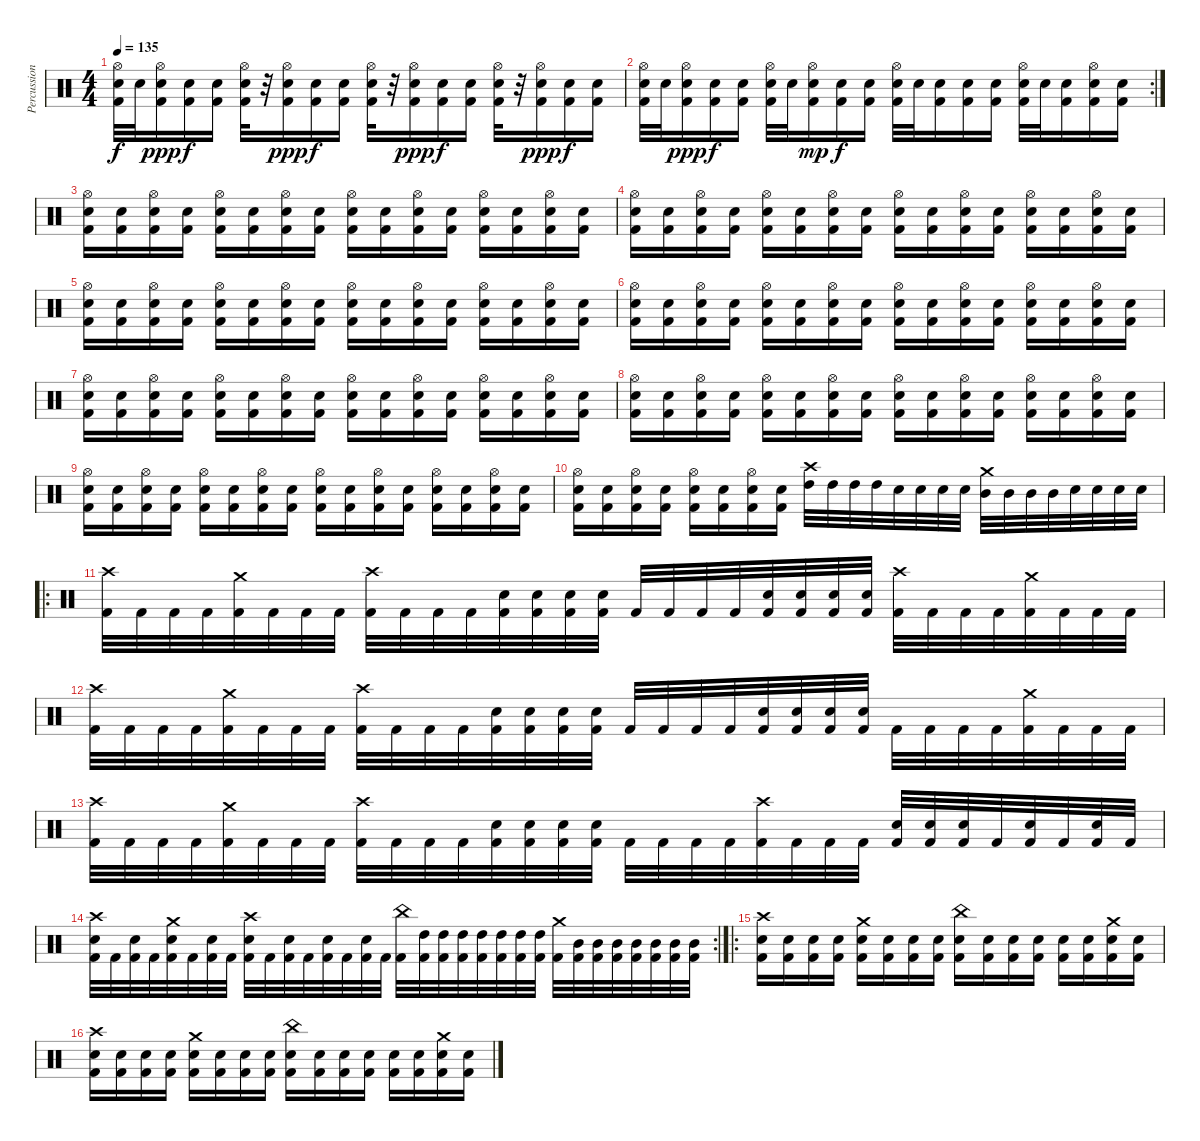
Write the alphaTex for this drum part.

\track ("Percussion" "Percussion") {instrument percussion}
\staff {score}
\articulation defaults
\ts (4 4)
\tempo 135
\clef neutral
\ks c
("Hi-Hat (open)" "Electric Snare (hit)" "Kick (hit) 2").32{dy f} "Electric Snare (hit)".32 ("Hi-Hat (open)" "Electric Snare (hit)" "Kick (hit) 2").16{dy ppp} ("Electric Snare (hit)" "Kick (hit) 2").16{dy f} ("Electric Snare (hit)" "Kick (hit) 2").16 ("Hi-Hat (open)" "Electric Snare (hit)" "Kick (hit) 2").32 r.32 ("Hi-Hat (open)" "Electric Snare (hit)" "Kick (hit) 2").16{dy ppp} ("Electric Snare (hit)" "Kick (hit) 2").16{dy f} ("Electric Snare (hit)" "Kick (hit) 2").16 ("Hi-Hat (open)" "Electric Snare (hit)" "Kick (hit) 2").32 r.32 ("Hi-Hat (open)" "Electric Snare (hit)" "Kick (hit) 2").16{dy ppp} ("Electric Snare (hit)" "Kick (hit) 2").16{dy f} ("Electric Snare (hit)" "Kick (hit) 2").16 ("Hi-Hat (open)" "Electric Snare (hit)" "Kick (hit) 2").32 r.32 ("Hi-Hat (open)" "Electric Snare (hit)" "Kick (hit) 2").16{dy ppp} ("Electric Snare (hit)" "Kick (hit) 2").16{dy f} ("Electric Snare (hit)" "Kick (hit) 2").16 |
\rc 2
("Hi-Hat (open)" "Electric Snare (hit)" "Kick (hit) 2").32 "Electric Snare (hit)".32 ("Hi-Hat (open)" "Electric Snare (hit)" "Kick (hit) 2").16{dy ppp} ("Electric Snare (hit)" "Kick (hit) 2").16{dy f} ("Electric Snare (hit)" "Kick (hit) 2").16 ("Hi-Hat (open)" "Electric Snare (hit)" "Kick (hit) 2").32 "Electric Snare (hit)".32 ("Hi-Hat (open)" "Electric Snare (hit)" "Kick (hit) 2").16{dy mp} ("Electric Snare (hit)" "Kick (hit) 2").16{dy f} ("Electric Snare (hit)" "Kick (hit) 2").16 ("Hi-Hat (open)" "Electric Snare (hit)" "Kick (hit) 2").32 "Electric Snare (hit)".32 ("Electric Snare (hit)" "Kick (hit) 2").16 ("Electric Snare (hit)" "Kick (hit) 2").16 ("Electric Snare (hit)" "Kick (hit) 2").16 ("Hi-Hat (open)" "Electric Snare (hit)" "Kick (hit) 2").32 "Electric Snare (hit)".32 ("Electric Snare (hit)" "Kick (hit) 2").16 ("Hi-Hat (open)" "Electric Snare (hit)" "Kick (hit) 2").16 ("Electric Snare (hit)" "Kick (hit) 2").16 |
("Hi-Hat (open)" "Electric Snare (hit)" "Kick (hit) 2").16 ("Electric Snare (hit)" "Kick (hit) 2").16 ("Hi-Hat (open)" "Electric Snare (hit)" "Kick (hit) 2").16 ("Electric Snare (hit)" "Kick (hit) 2").16 ("Hi-Hat (open)" "Electric Snare (hit)" "Kick (hit) 2").16 ("Electric Snare (hit)" "Kick (hit) 2").16 ("Hi-Hat (open)" "Electric Snare (hit)" "Kick (hit) 2").16 ("Electric Snare (hit)" "Kick (hit) 2").16 ("Hi-Hat (open)" "Electric Snare (hit)" "Kick (hit) 2").16 ("Electric Snare (hit)" "Kick (hit) 2").16 ("Hi-Hat (open)" "Electric Snare (hit)" "Kick (hit) 2").16 ("Electric Snare (hit)" "Kick (hit) 2").16 ("Hi-Hat (open)" "Electric Snare (hit)" "Kick (hit) 2").16 ("Electric Snare (hit)" "Kick (hit) 2").16 ("Hi-Hat (open)" "Electric Snare (hit)" "Kick (hit) 2").16 ("Electric Snare (hit)" "Kick (hit) 2").16 |
("Hi-Hat (open)" "Electric Snare (hit)" "Kick (hit) 2").16 ("Electric Snare (hit)" "Kick (hit) 2").16 ("Hi-Hat (open)" "Electric Snare (hit)" "Kick (hit) 2").16 ("Electric Snare (hit)" "Kick (hit) 2").16 ("Hi-Hat (open)" "Electric Snare (hit)" "Kick (hit) 2").16 ("Electric Snare (hit)" "Kick (hit) 2").16 ("Hi-Hat (open)" "Electric Snare (hit)" "Kick (hit) 2").16 ("Electric Snare (hit)" "Kick (hit) 2").16 ("Hi-Hat (open)" "Electric Snare (hit)" "Kick (hit) 2").16 ("Electric Snare (hit)" "Kick (hit) 2").16 ("Hi-Hat (open)" "Electric Snare (hit)" "Kick (hit) 2").16 ("Electric Snare (hit)" "Kick (hit) 2").16 ("Hi-Hat (open)" "Electric Snare (hit)" "Kick (hit) 2").16 ("Electric Snare (hit)" "Kick (hit) 2").16 ("Hi-Hat (open)" "Electric Snare (hit)" "Kick (hit) 2").16 ("Electric Snare (hit)" "Kick (hit) 2").16 |
("Hi-Hat (open)" "Electric Snare (hit)" "Kick (hit) 2").16 ("Electric Snare (hit)" "Kick (hit) 2").16 ("Hi-Hat (open)" "Electric Snare (hit)" "Kick (hit) 2").16 ("Electric Snare (hit)" "Kick (hit) 2").16 ("Hi-Hat (open)" "Electric Snare (hit)" "Kick (hit) 2").16 ("Electric Snare (hit)" "Kick (hit) 2").16 ("Hi-Hat (open)" "Electric Snare (hit)" "Kick (hit) 2").16 ("Electric Snare (hit)" "Kick (hit) 2").16 ("Hi-Hat (open)" "Electric Snare (hit)" "Kick (hit) 2").16 ("Electric Snare (hit)" "Kick (hit) 2").16 ("Hi-Hat (open)" "Electric Snare (hit)" "Kick (hit) 2").16 ("Electric Snare (hit)" "Kick (hit) 2").16 ("Hi-Hat (open)" "Electric Snare (hit)" "Kick (hit) 2").16 ("Electric Snare (hit)" "Kick (hit) 2").16 ("Hi-Hat (open)" "Electric Snare (hit)" "Kick (hit) 2").16 ("Electric Snare (hit)" "Kick (hit) 2").16 |
("Hi-Hat (open)" "Electric Snare (hit)" "Kick (hit) 2").16 ("Electric Snare (hit)" "Kick (hit) 2").16 ("Hi-Hat (open)" "Electric Snare (hit)" "Kick (hit) 2").16 ("Electric Snare (hit)" "Kick (hit) 2").16 ("Hi-Hat (open)" "Electric Snare (hit)" "Kick (hit) 2").16 ("Electric Snare (hit)" "Kick (hit) 2").16 ("Hi-Hat (open)" "Electric Snare (hit)" "Kick (hit) 2").16 ("Electric Snare (hit)" "Kick (hit) 2").16 ("Hi-Hat (open)" "Electric Snare (hit)" "Kick (hit) 2").16 ("Electric Snare (hit)" "Kick (hit) 2").16 ("Hi-Hat (open)" "Electric Snare (hit)" "Kick (hit) 2").16 ("Electric Snare (hit)" "Kick (hit) 2").16 ("Hi-Hat (open)" "Electric Snare (hit)" "Kick (hit) 2").16 ("Electric Snare (hit)" "Kick (hit) 2").16 ("Hi-Hat (open)" "Electric Snare (hit)" "Kick (hit) 2").16 ("Electric Snare (hit)" "Kick (hit) 2").16 |
("Hi-Hat (open)" "Electric Snare (hit)" "Kick (hit) 2").16 ("Electric Snare (hit)" "Kick (hit) 2").16 ("Hi-Hat (open)" "Electric Snare (hit)" "Kick (hit) 2").16 ("Electric Snare (hit)" "Kick (hit) 2").16 ("Hi-Hat (open)" "Electric Snare (hit)" "Kick (hit) 2").16 ("Electric Snare (hit)" "Kick (hit) 2").16 ("Hi-Hat (open)" "Electric Snare (hit)" "Kick (hit) 2").16 ("Electric Snare (hit)" "Kick (hit) 2").16 ("Hi-Hat (open)" "Electric Snare (hit)" "Kick (hit) 2").16 ("Electric Snare (hit)" "Kick (hit) 2").16 ("Hi-Hat (open)" "Electric Snare (hit)" "Kick (hit) 2").16 ("Electric Snare (hit)" "Kick (hit) 2").16 ("Hi-Hat (open)" "Electric Snare (hit)" "Kick (hit) 2").16 ("Electric Snare (hit)" "Kick (hit) 2").16 ("Hi-Hat (open)" "Electric Snare (hit)" "Kick (hit) 2").16 ("Electric Snare (hit)" "Kick (hit) 2").16 |
("Hi-Hat (open)" "Electric Snare (hit)" "Kick (hit) 2").16 ("Electric Snare (hit)" "Kick (hit) 2").16 ("Hi-Hat (open)" "Electric Snare (hit)" "Kick (hit) 2").16 ("Electric Snare (hit)" "Kick (hit) 2").16 ("Hi-Hat (open)" "Electric Snare (hit)" "Kick (hit) 2").16 ("Electric Snare (hit)" "Kick (hit) 2").16 ("Hi-Hat (open)" "Electric Snare (hit)" "Kick (hit) 2").16 ("Electric Snare (hit)" "Kick (hit) 2").16 ("Hi-Hat (open)" "Electric Snare (hit)" "Kick (hit) 2").16 ("Electric Snare (hit)" "Kick (hit) 2").16 ("Hi-Hat (open)" "Electric Snare (hit)" "Kick (hit) 2").16 ("Electric Snare (hit)" "Kick (hit) 2").16 ("Hi-Hat (open)" "Electric Snare (hit)" "Kick (hit) 2").16 ("Electric Snare (hit)" "Kick (hit) 2").16 ("Hi-Hat (open)" "Electric Snare (hit)" "Kick (hit) 2").16 ("Electric Snare (hit)" "Kick (hit) 2").16 |
("Hi-Hat (open)" "Electric Snare (hit)" "Kick (hit) 2").16 ("Electric Snare (hit)" "Kick (hit) 2").16 ("Hi-Hat (open)" "Electric Snare (hit)" "Kick (hit) 2").16 ("Electric Snare (hit)" "Kick (hit) 2").16 ("Hi-Hat (open)" "Electric Snare (hit)" "Kick (hit) 2").16 ("Electric Snare (hit)" "Kick (hit) 2").16 ("Hi-Hat (open)" "Electric Snare (hit)" "Kick (hit) 2").16 ("Electric Snare (hit)" "Kick (hit) 2").16 ("Hi-Hat (open)" "Electric Snare (hit)" "Kick (hit) 2").16 ("Electric Snare (hit)" "Kick (hit) 2").16 ("Hi-Hat (open)" "Electric Snare (hit)" "Kick (hit) 2").16 ("Electric Snare (hit)" "Kick (hit) 2").16 ("Hi-Hat (open)" "Electric Snare (hit)" "Kick (hit) 2").16 ("Electric Snare (hit)" "Kick (hit) 2").16 ("Hi-Hat (open)" "Electric Snare (hit)" "Kick (hit) 2").16 ("Electric Snare (hit)" "Kick (hit) 2").16 |
("Hi-Hat (open)" "Electric Snare (hit)" "Kick (hit) 2").16 ("Electric Snare (hit)" "Kick (hit) 2").16 ("Hi-Hat (open)" "Electric Snare (hit)" "Kick (hit) 2").16 ("Electric Snare (hit)" "Kick (hit) 2").16 ("Hi-Hat (open)" "Electric Snare (hit)" "Kick (hit) 2").16 ("Electric Snare (hit)" "Kick (hit) 2").16 ("Hi-Hat (open)" "Electric Snare (hit)" "Kick (hit) 2").16 ("Electric Snare (hit)" "Kick (hit) 2").16 ("Crash high (hit)" "High Tom (hit)").32 "High Tom (hit)".32 "High Tom (hit)".32 "High Tom (hit)".32 "Electric Snare (hit)".32 "Electric Snare (hit)".32 "Electric Snare (hit)".32 "Electric Snare (hit)".32 ("Crash medium (hit)" "Mid Tom (hit)").32 "Mid Tom (hit)".32 "Mid Tom (hit)".32 "Mid Tom (hit)".32 "Electric Snare (hit)".32 "Electric Snare (hit)".32 "Electric Snare (hit)".32 "Electric Snare (hit)".32 |
\ro
("Crash high (hit)" "Kick (hit) 2").32 "Kick (hit) 2".32 "Kick (hit) 2".32 "Kick (hit) 2".32 ("Crash medium (hit)" "Kick (hit) 2").32 "Kick (hit) 2".32 "Kick (hit) 2".32 "Kick (hit) 2".32 ("Crash high (hit)" "Kick (hit) 2").32 "Kick (hit) 2".32 "Kick (hit) 2".32 "Kick (hit) 2".32 ("Electric Snare (hit)" "Kick (hit) 2").32 ("Electric Snare (hit)" "Kick (hit) 2").32 ("Electric Snare (hit)" "Kick (hit) 2").32 ("Electric Snare (hit)" "Kick (hit) 2").32 "Kick (hit) 2".32 "Kick (hit) 2".32 "Kick (hit) 2".32 "Kick (hit) 2".32 ("Electric Snare (hit)" "Kick (hit) 2").32 ("Electric Snare (hit)" "Kick (hit) 2").32 ("Electric Snare (hit)" "Kick (hit) 2").32 ("Electric Snare (hit)" "Kick (hit) 2").32 ("Crash high (hit)" "Kick (hit) 2").32 "Kick (hit) 2".32 "Kick (hit) 2".32 "Kick (hit) 2".32 ("Crash medium (hit)" "Kick (hit) 2").32 "Kick (hit) 2".32 "Kick (hit) 2".32 "Kick (hit) 2".32 |
("Crash high (hit)" "Kick (hit) 2").32 "Kick (hit) 2".32 "Kick (hit) 2".32 "Kick (hit) 2".32 ("Crash medium (hit)" "Kick (hit) 2").32 "Kick (hit) 2".32 "Kick (hit) 2".32 "Kick (hit) 2".32 ("Crash high (hit)" "Kick (hit) 2").32 "Kick (hit) 2".32 "Kick (hit) 2".32 "Kick (hit) 2".32 ("Electric Snare (hit)" "Kick (hit) 2").32 ("Electric Snare (hit)" "Kick (hit) 2").32 ("Electric Snare (hit)" "Kick (hit) 2").32 ("Electric Snare (hit)" "Kick (hit) 2").32 "Kick (hit) 2".32 "Kick (hit) 2".32 "Kick (hit) 2".32 "Kick (hit) 2".32 ("Electric Snare (hit)" "Kick (hit) 2").32 ("Electric Snare (hit)" "Kick (hit) 2").32 ("Electric Snare (hit)" "Kick (hit) 2").32 ("Electric Snare (hit)" "Kick (hit) 2").32 "Kick (hit) 2".32 "Kick (hit) 2".32 "Kick (hit) 2".32 "Kick (hit) 2".32 ("Crash medium (hit)" "Kick (hit) 2").32 "Kick (hit) 2".32 "Kick (hit) 2".32 "Kick (hit) 2".32 |
("Crash high (hit)" "Kick (hit) 2").32 "Kick (hit) 2".32 "Kick (hit) 2".32 "Kick (hit) 2".32 ("Crash medium (hit)" "Kick (hit) 2").32 "Kick (hit) 2".32 "Kick (hit) 2".32 "Kick (hit) 2".32 ("Crash high (hit)" "Kick (hit) 2").32 "Kick (hit) 2".32 "Kick (hit) 2".32 "Kick (hit) 2".32 ("Electric Snare (hit)" "Kick (hit) 2").32 ("Electric Snare (hit)" "Kick (hit) 2").32 ("Electric Snare (hit)" "Kick (hit) 2").32 ("Electric Snare (hit)" "Kick (hit) 2").32 "Kick (hit) 2".32 "Kick (hit) 2".32 "Kick (hit) 2".32 "Kick (hit) 2".32 ("Crash high (hit)" "Kick (hit) 2").32 "Kick (hit) 2".32 "Kick (hit) 2".32 "Kick (hit) 2".32 ("Electric Snare (hit)" "Kick (hit) 2").32 ("Electric Snare (hit)" "Kick (hit) 2").32 ("Electric Snare (hit)" "Kick (hit) 2").32 "Kick (hit) 2".32 ("Electric Snare (hit)" "Kick (hit) 2").32 "Kick (hit) 2".32 ("Electric Snare (hit)" "Kick (hit) 2").32 "Kick (hit) 2".32 |
\rc 2
("Crash high (hit)" "Electric Snare (hit)" "Kick (hit) 2").32 "Kick (hit) 2".32 ("Electric Snare (hit)" "Kick (hit) 2").32 "Kick (hit) 2".32 ("Crash medium (hit)" "Electric Snare (hit)" "Kick (hit) 2").32 "Kick (hit) 2".32 ("Electric Snare (hit)" "Kick (hit) 2").32 "Kick (hit) 2".32 ("Crash high (hit)" "Electric Snare (hit)" "Kick (hit) 2").32 "Kick (hit) 2".32 ("Electric Snare (hit)" "Kick (hit) 2").32 "Kick (hit) 2".32 ("Electric Snare (hit)" "Kick (hit) 2").32 "Kick (hit) 2".32 ("Electric Snare (hit)" "Kick (hit) 2").32 "Kick (hit) 2".32 ("China (hit)" "Kick (hit) 2").32 ("High Tom (hit)" "Kick (hit) 2").32 ("High Tom (hit)" "Kick (hit) 2").32 ("High Tom (hit)" "Kick (hit) 2").32 ("High Tom (hit)" "Kick (hit) 2").32 ("High Tom (hit)" "Kick (hit) 2").32 ("High Tom (hit)" "Kick (hit) 2").32 ("High Tom (hit)" "Kick (hit) 2").32 ("Crash medium (hit)" "Kick (hit) 2").32 ("Mid Tom (hit)" "Kick (hit) 2").32 ("Mid Tom (hit)" "Kick (hit) 2").32 ("Mid Tom (hit)" "Kick (hit) 2").32 ("Mid Tom (hit)" "Kick (hit) 2").32 ("Mid Tom (hit)" "Kick (hit) 2").32 ("Mid Tom (hit)" "Kick (hit) 2").32 ("Mid Tom (hit)" "Kick (hit) 2").32 |
\ro
("Crash high (hit)" "Electric Snare (hit)" "Kick (hit) 2").16 ("Electric Snare (hit)" "Kick (hit) 2").16 ("Electric Snare (hit)" "Kick (hit) 2").16 ("Electric Snare (hit)" "Kick (hit) 2").16 ("Crash medium (hit)" "Electric Snare (hit)" "Kick (hit) 2").16 ("Electric Snare (hit)" "Kick (hit) 2").16 ("Electric Snare (hit)" "Kick (hit) 2").16 ("Electric Snare (hit)" "Kick (hit) 2").16 ("China (hit)" "Electric Snare (hit)" "Kick (hit) 2").16 ("Electric Snare (hit)" "Kick (hit) 2").16 ("Electric Snare (hit)" "Kick (hit) 2").16 ("Electric Snare (hit)" "Kick (hit) 2").16 ("Electric Snare (hit)" "Kick (hit) 2").16 ("Electric Snare (hit)" "Kick (hit) 2").16 ("Crash medium (hit)" "Electric Snare (hit)" "Kick (hit) 2").16 ("Electric Snare (hit)" "Kick (hit) 2").16 |
("Crash high (hit)" "Electric Snare (hit)" "Kick (hit) 2").16 ("Electric Snare (hit)" "Kick (hit) 2").16 ("Electric Snare (hit)" "Kick (hit) 2").16 ("Electric Snare (hit)" "Kick (hit) 2").16 ("Crash medium (hit)" "Electric Snare (hit)" "Kick (hit) 2").16 ("Electric Snare (hit)" "Kick (hit) 2").16 ("Electric Snare (hit)" "Kick (hit) 2").16 ("Electric Snare (hit)" "Kick (hit) 2").16 ("China (hit)" "Electric Snare (hit)" "Kick (hit) 2").16 ("Electric Snare (hit)" "Kick (hit) 2").16 ("Electric Snare (hit)" "Kick (hit) 2").16 ("Electric Snare (hit)" "Kick (hit) 2").16 ("Electric Snare (hit)" "Kick (hit) 2").16 ("Electric Snare (hit)" "Kick (hit) 2").16 ("Crash medium (hit)" "Electric Snare (hit)" "Kick (hit) 2").16 ("Electric Snare (hit)" "Kick (hit) 2").16
